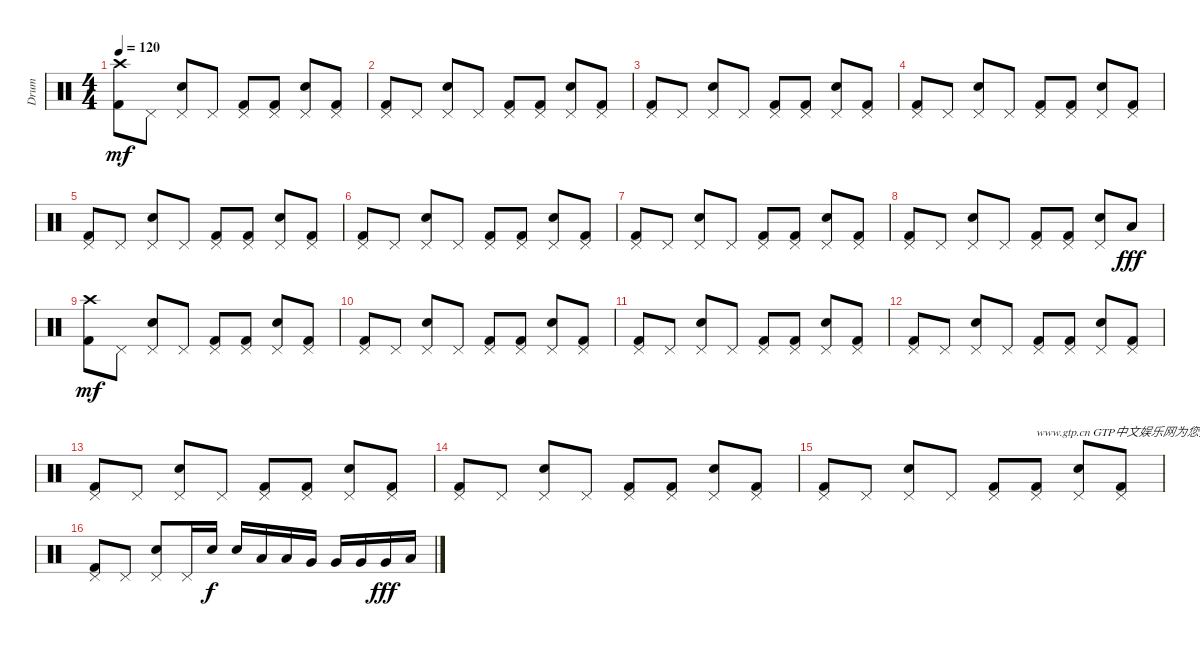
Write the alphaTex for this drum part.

\track ("Drum" "Drum") {instrument percussion}
\staff {score}
\articulation defaults
\ts (4 4)
\tempo 120
\clef neutral
\ks c
("Crash high (hit)" "Kick (hit) 2").8{dy mf} "Pedal Hi-Hat (hit)".8 ("Pedal Hi-Hat (hit)" "Electric Snare (hit)").8 "Pedal Hi-Hat (hit)".8 ("Pedal Hi-Hat (hit)" "Kick (hit) 2").8 ("Pedal Hi-Hat (hit)" "Kick (hit) 2").8 ("Pedal Hi-Hat (hit)" "Electric Snare (hit)").8 ("Pedal Hi-Hat (hit)" "Kick (hit) 2").8 |
("Pedal Hi-Hat (hit)" "Kick (hit) 2").8 "Pedal Hi-Hat (hit)".8 ("Pedal Hi-Hat (hit)" "Electric Snare (hit)").8 "Pedal Hi-Hat (hit)".8 ("Pedal Hi-Hat (hit)" "Kick (hit) 2").8 ("Pedal Hi-Hat (hit)" "Kick (hit) 2").8 ("Pedal Hi-Hat (hit)" "Electric Snare (hit)").8 ("Pedal Hi-Hat (hit)" "Kick (hit) 2").8 |
("Pedal Hi-Hat (hit)" "Kick (hit) 2").8 "Pedal Hi-Hat (hit)".8 ("Pedal Hi-Hat (hit)" "Electric Snare (hit)").8 "Pedal Hi-Hat (hit)".8 ("Pedal Hi-Hat (hit)" "Kick (hit) 2").8 ("Pedal Hi-Hat (hit)" "Kick (hit) 2").8 ("Pedal Hi-Hat (hit)" "Electric Snare (hit)").8 ("Pedal Hi-Hat (hit)" "Kick (hit) 2").8 |
("Pedal Hi-Hat (hit)" "Kick (hit) 2").8 "Pedal Hi-Hat (hit)".8 ("Pedal Hi-Hat (hit)" "Electric Snare (hit)").8 "Pedal Hi-Hat (hit)".8 ("Pedal Hi-Hat (hit)" "Kick (hit) 2").8 ("Pedal Hi-Hat (hit)" "Kick (hit) 2").8 ("Pedal Hi-Hat (hit)" "Electric Snare (hit)").8 ("Pedal Hi-Hat (hit)" "Kick (hit) 2").8 |
("Pedal Hi-Hat (hit)" "Kick (hit) 2").8 "Pedal Hi-Hat (hit)".8 ("Pedal Hi-Hat (hit)" "Electric Snare (hit)").8 "Pedal Hi-Hat (hit)".8 ("Pedal Hi-Hat (hit)" "Kick (hit) 2").8 ("Pedal Hi-Hat (hit)" "Kick (hit) 2").8 ("Pedal Hi-Hat (hit)" "Electric Snare (hit)").8 ("Pedal Hi-Hat (hit)" "Kick (hit) 2").8 |
("Pedal Hi-Hat (hit)" "Kick (hit) 2").8 "Pedal Hi-Hat (hit)".8 ("Pedal Hi-Hat (hit)" "Electric Snare (hit)").8 "Pedal Hi-Hat (hit)".8 ("Pedal Hi-Hat (hit)" "Kick (hit) 2").8 ("Pedal Hi-Hat (hit)" "Kick (hit) 2").8 ("Pedal Hi-Hat (hit)" "Electric Snare (hit)").8 ("Pedal Hi-Hat (hit)" "Kick (hit) 2").8 |
("Pedal Hi-Hat (hit)" "Kick (hit) 2").8 "Pedal Hi-Hat (hit)".8 ("Pedal Hi-Hat (hit)" "Electric Snare (hit)").8 "Pedal Hi-Hat (hit)".8 ("Pedal Hi-Hat (hit)" "Kick (hit) 2").8 ("Pedal Hi-Hat (hit)" "Kick (hit) 2").8 ("Pedal Hi-Hat (hit)" "Electric Snare (hit)").8 ("Pedal Hi-Hat (hit)" "Kick (hit) 2").8 |
("Pedal Hi-Hat (hit)" "Kick (hit) 2").8 "Pedal Hi-Hat (hit)".8 ("Pedal Hi-Hat (hit)" "Electric Snare (hit)").8 "Pedal Hi-Hat (hit)".8 ("Pedal Hi-Hat (hit)" "Kick (hit) 2").8 ("Pedal Hi-Hat (hit)" "Kick (hit) 2").8 ("Pedal Hi-Hat (hit)" "Electric Snare (hit)").8 "Low Floor Tom (hit)".8{dy fff} |
("Crash high (hit)" "Kick (hit) 2").8{dy mf} "Pedal Hi-Hat (hit)".8 ("Pedal Hi-Hat (hit)" "Electric Snare (hit)").8 "Pedal Hi-Hat (hit)".8 ("Pedal Hi-Hat (hit)" "Kick (hit) 2").8 ("Pedal Hi-Hat (hit)" "Kick (hit) 2").8 ("Pedal Hi-Hat (hit)" "Electric Snare (hit)").8 ("Pedal Hi-Hat (hit)" "Kick (hit) 2").8 |
("Pedal Hi-Hat (hit)" "Kick (hit) 2").8 "Pedal Hi-Hat (hit)".8 ("Pedal Hi-Hat (hit)" "Electric Snare (hit)").8 "Pedal Hi-Hat (hit)".8 ("Pedal Hi-Hat (hit)" "Kick (hit) 2").8 ("Pedal Hi-Hat (hit)" "Kick (hit) 2").8 ("Pedal Hi-Hat (hit)" "Electric Snare (hit)").8 ("Pedal Hi-Hat (hit)" "Kick (hit) 2").8 |
("Pedal Hi-Hat (hit)" "Kick (hit) 2").8 "Pedal Hi-Hat (hit)".8 ("Pedal Hi-Hat (hit)" "Electric Snare (hit)").8 "Pedal Hi-Hat (hit)".8 ("Pedal Hi-Hat (hit)" "Kick (hit) 2").8 ("Pedal Hi-Hat (hit)" "Kick (hit) 2").8 ("Pedal Hi-Hat (hit)" "Electric Snare (hit)").8 ("Pedal Hi-Hat (hit)" "Kick (hit) 2").8 |
("Pedal Hi-Hat (hit)" "Kick (hit) 2").8 "Pedal Hi-Hat (hit)".8 ("Pedal Hi-Hat (hit)" "Electric Snare (hit)").8 "Pedal Hi-Hat (hit)".8 ("Pedal Hi-Hat (hit)" "Kick (hit) 2").8 ("Pedal Hi-Hat (hit)" "Kick (hit) 2").8 ("Pedal Hi-Hat (hit)" "Electric Snare (hit)").8 ("Pedal Hi-Hat (hit)" "Kick (hit) 2").8 |
("Pedal Hi-Hat (hit)" "Kick (hit) 2").8 "Pedal Hi-Hat (hit)".8 ("Pedal Hi-Hat (hit)" "Electric Snare (hit)").8 "Pedal Hi-Hat (hit)".8 ("Pedal Hi-Hat (hit)" "Kick (hit) 2").8 ("Pedal Hi-Hat (hit)" "Kick (hit) 2").8 ("Pedal Hi-Hat (hit)" "Electric Snare (hit)").8 ("Pedal Hi-Hat (hit)" "Kick (hit) 2").8 |
("Pedal Hi-Hat (hit)" "Kick (hit) 2").8 "Pedal Hi-Hat (hit)".8 ("Pedal Hi-Hat (hit)" "Electric Snare (hit)").8 "Pedal Hi-Hat (hit)".8 ("Pedal Hi-Hat (hit)" "Kick (hit) 2").8 ("Pedal Hi-Hat (hit)" "Kick (hit) 2").8 ("Pedal Hi-Hat (hit)" "Electric Snare (hit)").8 ("Pedal Hi-Hat (hit)" "Kick (hit) 2").8 |
("Pedal Hi-Hat (hit)" "Kick (hit) 2").8 "Pedal Hi-Hat (hit)".8 ("Pedal Hi-Hat (hit)" "Electric Snare (hit)").8 "Pedal Hi-Hat (hit)".8 ("Pedal Hi-Hat (hit)" "Kick (hit) 2").8 ("Pedal Hi-Hat (hit)" "Kick (hit) 2").8{txt "www.gtp.cn GTP中文娱乐网为您提供优秀的谱子"} ("Pedal Hi-Hat (hit)" "Electric Snare (hit)").8 ("Pedal Hi-Hat (hit)" "Kick (hit) 2").8 |
("Pedal Hi-Hat (hit)" "Kick (hit) 2").8 "Pedal Hi-Hat (hit)".8 ("Pedal Hi-Hat (hit)" "Electric Snare (hit)").8 "Pedal Hi-Hat (hit)".16 "Electric Snare (hit)".16{dy f} "Electric Snare (hit)".16 "Low Tom (hit)".16 "Low Tom (hit)".16 "Very Low Tom (hit)".16 "Very Low Tom (hit)".16 "Very Low Tom (hit)".16 "Very Low Tom (hit)".16{dy fff} "Low Floor Tom (hit)".16
